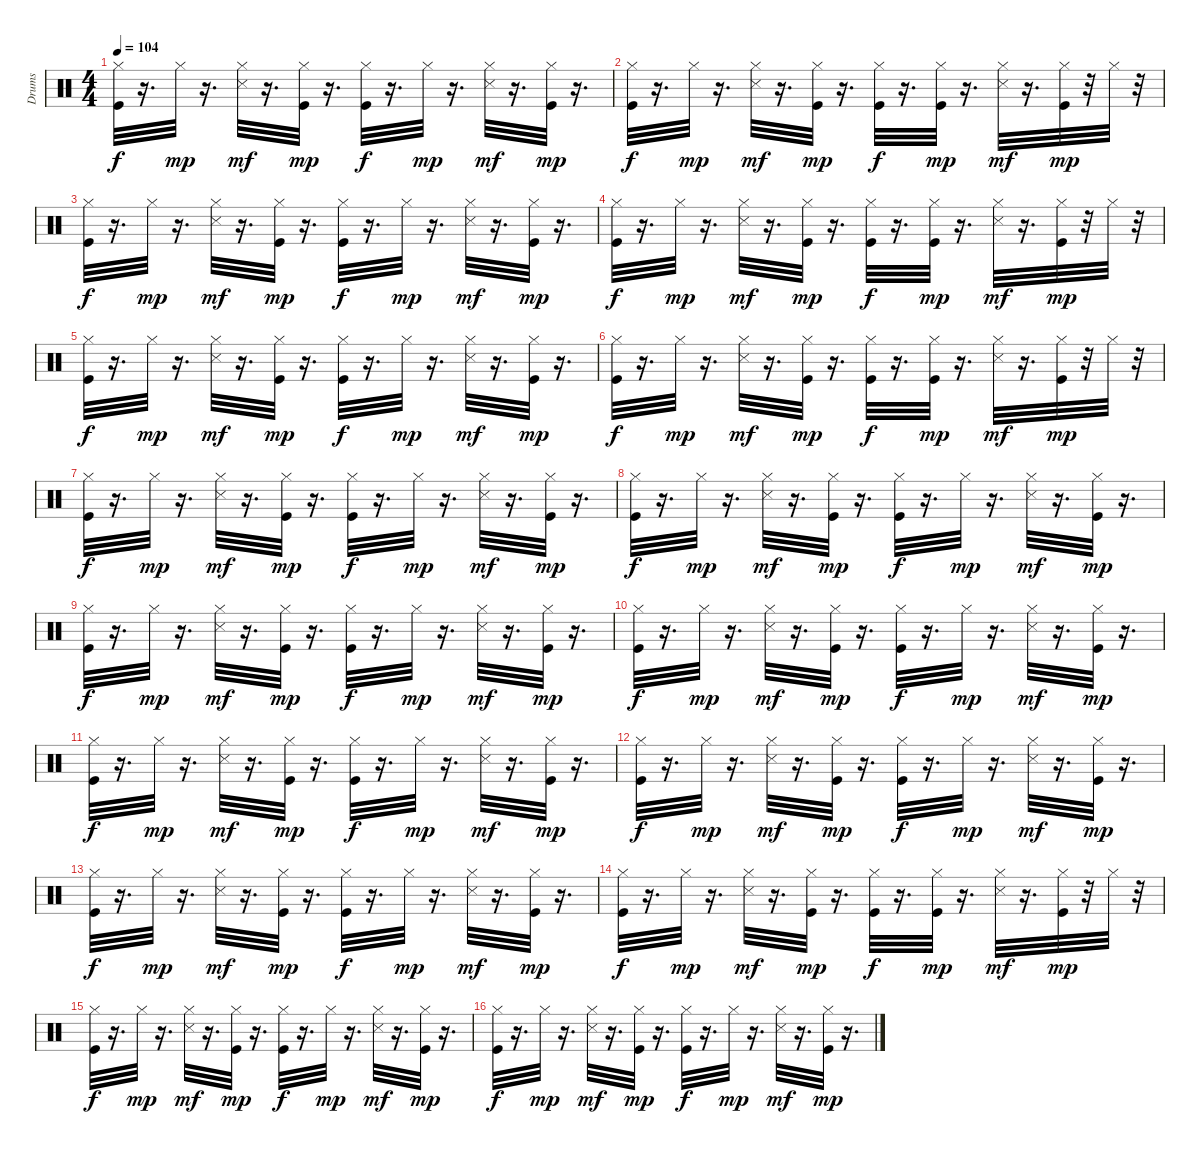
\track ("Drums" "Drums") {instrument percussion}
\staff {score}
\articulation defaults
\ts (4 4)
\tempo 104
\clef neutral
\ks c
("Kick (hit)" "Hi-Hat (closed)").32{dy f} r.16{d} "Hi-Hat (closed)".32{dy mp} r.16{d} ("Hi-Hat (closed)" "Snare (side stick) 3").32{dy mf} r.16{d} ("Kick (hit)" "Hi-Hat (closed)").32{dy mp} r.16{d} ("Kick (hit)" "Hi-Hat (closed)").32{dy f} r.16{d} "Hi-Hat (closed)".32{dy mp} r.16{d} ("Hi-Hat (closed)" "Snare (side stick) 3").32{dy mf} r.16{d} ("Kick (hit)" "Hi-Hat (closed)").32{dy mp} r.16{d} |
("Kick (hit)" "Hi-Hat (closed)").32{dy f} r.16{d} "Hi-Hat (closed)".32{dy mp} r.16{d} ("Hi-Hat (closed)" "Snare (side stick) 3").32{dy mf} r.16{d} ("Kick (hit)" "Hi-Hat (closed)").32{dy mp} r.16{d} ("Kick (hit)" "Hi-Hat (closed)").32{dy f} r.16{d} ("Kick (hit)" "Hi-Hat (closed)").32{dy mp} r.16{d} ("Hi-Hat (closed)" "Snare (side stick) 3").32{dy mf} r.16{d} ("Kick (hit)" "Hi-Hat (closed)").32{dy mp} r.32 "Hi-Hat (closed)".32 r.32 |
("Kick (hit)" "Hi-Hat (closed)").32{dy f} r.16{d} "Hi-Hat (closed)".32{dy mp} r.16{d} ("Hi-Hat (closed)" "Snare (side stick) 3").32{dy mf} r.16{d} ("Kick (hit)" "Hi-Hat (closed)").32{dy mp} r.16{d} ("Kick (hit)" "Hi-Hat (closed)").32{dy f} r.16{d} "Hi-Hat (closed)".32{dy mp} r.16{d} ("Hi-Hat (closed)" "Snare (side stick) 3").32{dy mf} r.16{d} ("Kick (hit)" "Hi-Hat (closed)").32{dy mp} r.16{d} |
("Kick (hit)" "Hi-Hat (closed)").32{dy f} r.16{d} "Hi-Hat (closed)".32{dy mp} r.16{d} ("Hi-Hat (closed)" "Snare (side stick) 3").32{dy mf} r.16{d} ("Kick (hit)" "Hi-Hat (closed)").32{dy mp} r.16{d} ("Kick (hit)" "Hi-Hat (closed)").32{dy f} r.16{d} ("Kick (hit)" "Hi-Hat (closed)").32{dy mp} r.16{d} ("Hi-Hat (closed)" "Snare (side stick) 3").32{dy mf} r.16{d} ("Kick (hit)" "Hi-Hat (closed)").32{dy mp} r.32 "Hi-Hat (closed)".32 r.32 |
("Kick (hit)" "Hi-Hat (closed)").32{dy f} r.16{d} "Hi-Hat (closed)".32{dy mp} r.16{d} ("Hi-Hat (closed)" "Snare (side stick) 3").32{dy mf} r.16{d} ("Kick (hit)" "Hi-Hat (closed)").32{dy mp} r.16{d} ("Kick (hit)" "Hi-Hat (closed)").32{dy f} r.16{d} "Hi-Hat (closed)".32{dy mp} r.16{d} ("Hi-Hat (closed)" "Snare (side stick) 3").32{dy mf} r.16{d} ("Kick (hit)" "Hi-Hat (closed)").32{dy mp} r.16{d} |
("Kick (hit)" "Hi-Hat (closed)").32{dy f} r.16{d} "Hi-Hat (closed)".32{dy mp} r.16{d} ("Hi-Hat (closed)" "Snare (side stick) 3").32{dy mf} r.16{d} ("Kick (hit)" "Hi-Hat (closed)").32{dy mp} r.16{d} ("Kick (hit)" "Hi-Hat (closed)").32{dy f} r.16{d} ("Kick (hit)" "Hi-Hat (closed)").32{dy mp} r.16{d} ("Hi-Hat (closed)" "Snare (side stick) 3").32{dy mf} r.16{d} ("Kick (hit)" "Hi-Hat (closed)").32{dy mp} r.32 "Hi-Hat (closed)".32 r.32 |
("Kick (hit)" "Hi-Hat (closed)").32{dy f} r.16{d} "Hi-Hat (closed)".32{dy mp} r.16{d} ("Hi-Hat (closed)" "Snare (side stick) 3").32{dy mf} r.16{d} ("Kick (hit)" "Hi-Hat (closed)").32{dy mp} r.16{d} ("Kick (hit)" "Hi-Hat (closed)").32{dy f} r.16{d} "Hi-Hat (closed)".32{dy mp} r.16{d} ("Hi-Hat (closed)" "Snare (side stick) 3").32{dy mf} r.16{d} ("Kick (hit)" "Hi-Hat (closed)").32{dy mp} r.16{d} |
("Kick (hit)" "Hi-Hat (closed)").32{dy f} r.16{d} "Hi-Hat (closed)".32{dy mp} r.16{d} ("Hi-Hat (closed)" "Snare (side stick) 3").32{dy mf} r.16{d} ("Kick (hit)" "Hi-Hat (closed)").32{dy mp} r.16{d} ("Kick (hit)" "Hi-Hat (closed)").32{dy f} r.16{d} "Hi-Hat (closed)".32{dy mp} r.16{d} ("Hi-Hat (closed)" "Snare (side stick) 3").32{dy mf} r.16{d} ("Kick (hit)" "Hi-Hat (closed)").32{dy mp} r.16{d} |
("Kick (hit)" "Hi-Hat (closed)").32{dy f} r.16{d} "Hi-Hat (closed)".32{dy mp} r.16{d} ("Hi-Hat (closed)" "Snare (side stick) 3").32{dy mf} r.16{d} ("Kick (hit)" "Hi-Hat (closed)").32{dy mp} r.16{d} ("Kick (hit)" "Hi-Hat (closed)").32{dy f} r.16{d} "Hi-Hat (closed)".32{dy mp} r.16{d} ("Hi-Hat (closed)" "Snare (side stick) 3").32{dy mf} r.16{d} ("Kick (hit)" "Hi-Hat (closed)").32{dy mp} r.16{d} |
("Kick (hit)" "Hi-Hat (closed)").32{dy f} r.16{d} "Hi-Hat (closed)".32{dy mp} r.16{d} ("Hi-Hat (closed)" "Snare (side stick) 3").32{dy mf} r.16{d} ("Kick (hit)" "Hi-Hat (closed)").32{dy mp} r.16{d} ("Kick (hit)" "Hi-Hat (closed)").32{dy f} r.16{d} "Hi-Hat (closed)".32{dy mp} r.16{d} ("Hi-Hat (closed)" "Snare (side stick) 3").32{dy mf} r.16{d} ("Kick (hit)" "Hi-Hat (closed)").32{dy mp} r.16{d} |
("Kick (hit)" "Hi-Hat (closed)").32{dy f} r.16{d} "Hi-Hat (closed)".32{dy mp} r.16{d} ("Hi-Hat (closed)" "Snare (side stick) 3").32{dy mf} r.16{d} ("Kick (hit)" "Hi-Hat (closed)").32{dy mp} r.16{d} ("Kick (hit)" "Hi-Hat (closed)").32{dy f} r.16{d} "Hi-Hat (closed)".32{dy mp} r.16{d} ("Hi-Hat (closed)" "Snare (side stick) 3").32{dy mf} r.16{d} ("Kick (hit)" "Hi-Hat (closed)").32{dy mp} r.16{d} |
("Kick (hit)" "Hi-Hat (closed)").32{dy f} r.16{d} "Hi-Hat (closed)".32{dy mp} r.16{d} ("Hi-Hat (closed)" "Snare (side stick) 3").32{dy mf} r.16{d} ("Kick (hit)" "Hi-Hat (closed)").32{dy mp} r.16{d} ("Kick (hit)" "Hi-Hat (closed)").32{dy f} r.16{d} "Hi-Hat (closed)".32{dy mp} r.16{d} ("Hi-Hat (closed)" "Snare (side stick) 3").32{dy mf} r.16{d} ("Kick (hit)" "Hi-Hat (closed)").32{dy mp} r.16{d} |
("Kick (hit)" "Hi-Hat (closed)").32{dy f} r.16{d} "Hi-Hat (closed)".32{dy mp} r.16{d} ("Hi-Hat (closed)" "Snare (side stick) 3").32{dy mf} r.16{d} ("Kick (hit)" "Hi-Hat (closed)").32{dy mp} r.16{d} ("Kick (hit)" "Hi-Hat (closed)").32{dy f} r.16{d} "Hi-Hat (closed)".32{dy mp} r.16{d} ("Hi-Hat (closed)" "Snare (side stick) 3").32{dy mf} r.16{d} ("Kick (hit)" "Hi-Hat (closed)").32{dy mp} r.16{d} |
("Kick (hit)" "Hi-Hat (closed)").32{dy f} r.16{d} "Hi-Hat (closed)".32{dy mp} r.16{d} ("Hi-Hat (closed)" "Snare (side stick) 3").32{dy mf} r.16{d} ("Kick (hit)" "Hi-Hat (closed)").32{dy mp} r.16{d} ("Kick (hit)" "Hi-Hat (closed)").32{dy f} r.16{d} ("Kick (hit)" "Hi-Hat (closed)").32{dy mp} r.16{d} ("Hi-Hat (closed)" "Snare (side stick) 3").32{dy mf} r.16{d} ("Kick (hit)" "Hi-Hat (closed)").32{dy mp} r.32 "Hi-Hat (closed)".32 r.32 |
("Kick (hit)" "Hi-Hat (closed)").32{dy f} r.16{d} "Hi-Hat (closed)".32{dy mp} r.16{d} ("Hi-Hat (closed)" "Snare (side stick) 3").32{dy mf} r.16{d} ("Kick (hit)" "Hi-Hat (closed)").32{dy mp} r.16{d} ("Kick (hit)" "Hi-Hat (closed)").32{dy f} r.16{d} "Hi-Hat (closed)".32{dy mp} r.16{d} ("Hi-Hat (closed)" "Snare (side stick) 3").32{dy mf} r.16{d} ("Kick (hit)" "Hi-Hat (closed)").32{dy mp} r.16{d} |
("Kick (hit)" "Hi-Hat (closed)").32{dy f} r.16{d} "Hi-Hat (closed)".32{dy mp} r.16{d} ("Hi-Hat (closed)" "Snare (side stick) 3").32{dy mf} r.16{d} ("Kick (hit)" "Hi-Hat (closed)").32{dy mp} r.16{d} ("Kick (hit)" "Hi-Hat (closed)").32{dy f} r.16{d} "Hi-Hat (closed)".32{dy mp} r.16{d} ("Hi-Hat (closed)" "Snare (side stick) 3").32{dy mf} r.16{d} ("Kick (hit)" "Hi-Hat (closed)").32{dy mp} r.16{d}
